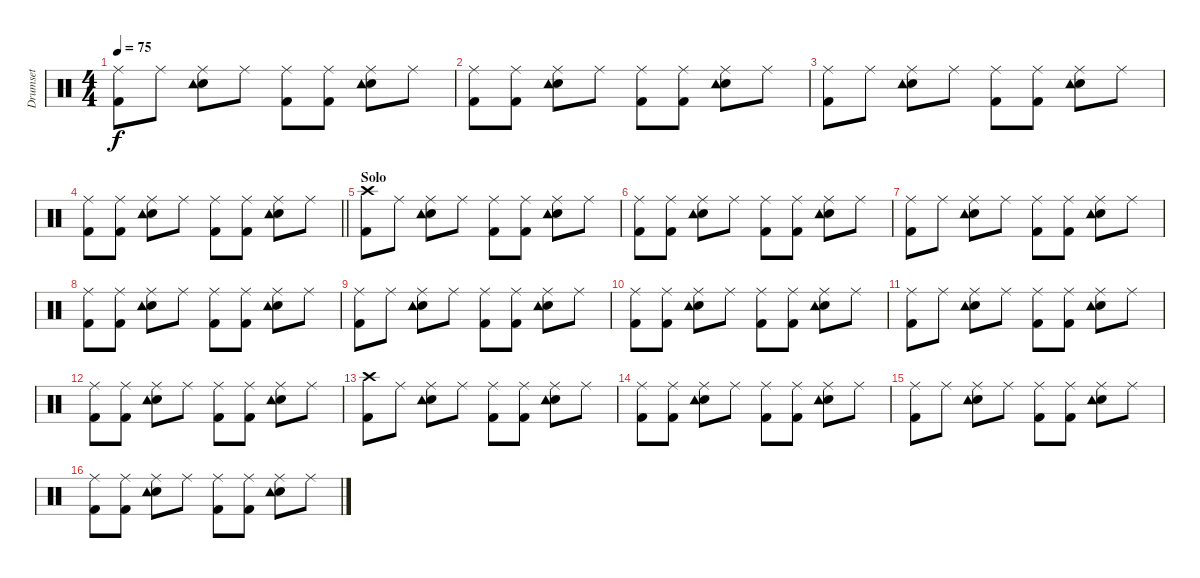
\track ("Drumset" "Drumset") {instrument percussion}
\staff {score}
\articulation defaults
\ts (4 4)
\tempo 75
\clef neutral
\ks c
("Ride (middle)" "Kick (hit) 2").8{dy f} "Ride (middle)".8 ("Ride (middle)" "Electric Snare (hit)" "Tambourine (hit)").8 "Ride (middle)".8 ("Ride (middle)" "Kick (hit) 2").8 ("Ride (middle)" "Kick (hit) 2").8 ("Ride (middle)" "Electric Snare (hit)" "Tambourine (hit)").8 "Ride (middle)".8 |
("Ride (middle)" "Kick (hit) 2").8 ("Ride (middle)" "Kick (hit) 2").8 ("Ride (middle)" "Electric Snare (hit)" "Tambourine (hit)").8 "Ride (middle)".8 ("Ride (middle)" "Kick (hit) 2").8 ("Ride (middle)" "Kick (hit) 2").8 ("Ride (middle)" "Electric Snare (hit)" "Tambourine (hit)").8 "Ride (middle)".8 |
("Ride (middle)" "Kick (hit) 2").8 "Ride (middle)".8 ("Ride (middle)" "Electric Snare (hit)" "Tambourine (hit)").8 "Ride (middle)".8 ("Ride (middle)" "Kick (hit) 2").8 ("Ride (middle)" "Kick (hit) 2").8 ("Ride (middle)" "Electric Snare (hit)" "Tambourine (hit)").8 "Ride (middle)".8 |
\barLineRight lightlight
("Ride (middle)" "Kick (hit) 2").8 ("Ride (middle)" "Kick (hit) 2").8 ("Ride (middle)" "Electric Snare (hit)" "Tambourine (hit)").8 "Ride (middle)".8 ("Ride (middle)" "Kick (hit) 2").8 ("Ride (middle)" "Kick (hit) 2").8 ("Ride (middle)" "Electric Snare (hit)" "Tambourine (hit)").8 "Ride (middle)".8 |
\section ("" "Solo")
("Crash high (hit)" "Kick (hit) 2").8 "Ride (middle)".8 ("Ride (middle)" "Electric Snare (hit)" "Tambourine (hit)").8 "Ride (middle)".8 ("Ride (middle)" "Kick (hit) 2").8 ("Ride (middle)" "Kick (hit) 2").8 ("Ride (middle)" "Electric Snare (hit)" "Tambourine (hit)").8 "Ride (middle)".8 |
("Ride (middle)" "Kick (hit) 2").8 ("Ride (middle)" "Kick (hit) 2").8 ("Ride (middle)" "Electric Snare (hit)" "Tambourine (hit)").8 "Ride (middle)".8 ("Ride (middle)" "Kick (hit) 2").8 ("Ride (middle)" "Kick (hit) 2").8 ("Ride (middle)" "Electric Snare (hit)" "Tambourine (hit)").8 "Ride (middle)".8 |
("Ride (middle)" "Kick (hit) 2").8 "Ride (middle)".8 ("Ride (middle)" "Electric Snare (hit)" "Tambourine (hit)").8 "Ride (middle)".8 ("Ride (middle)" "Kick (hit) 2").8 ("Ride (middle)" "Kick (hit) 2").8 ("Ride (middle)" "Electric Snare (hit)" "Tambourine (hit)").8 "Ride (middle)".8 |
("Ride (middle)" "Kick (hit) 2").8 ("Ride (middle)" "Kick (hit) 2").8 ("Ride (middle)" "Electric Snare (hit)" "Tambourine (hit)").8 "Ride (middle)".8 ("Ride (middle)" "Kick (hit) 2").8 ("Ride (middle)" "Kick (hit) 2").8 ("Ride (middle)" "Electric Snare (hit)" "Tambourine (hit)").8 "Ride (middle)".8 |
("Ride (middle)" "Kick (hit) 2").8 "Ride (middle)".8 ("Ride (middle)" "Electric Snare (hit)" "Tambourine (hit)").8 "Ride (middle)".8 ("Ride (middle)" "Kick (hit) 2").8 ("Ride (middle)" "Kick (hit) 2").8 ("Ride (middle)" "Electric Snare (hit)" "Tambourine (hit)").8 "Ride (middle)".8 |
("Ride (middle)" "Kick (hit) 2").8 ("Ride (middle)" "Kick (hit) 2").8 ("Ride (middle)" "Electric Snare (hit)" "Tambourine (hit)").8 "Ride (middle)".8 ("Ride (middle)" "Kick (hit) 2").8 ("Ride (middle)" "Kick (hit) 2").8 ("Ride (middle)" "Electric Snare (hit)" "Tambourine (hit)").8 "Ride (middle)".8 |
("Ride (middle)" "Kick (hit) 2").8 "Ride (middle)".8 ("Ride (middle)" "Electric Snare (hit)" "Tambourine (hit)").8 "Ride (middle)".8 ("Ride (middle)" "Kick (hit) 2").8 ("Ride (middle)" "Kick (hit) 2").8 ("Ride (middle)" "Electric Snare (hit)" "Tambourine (hit)").8 "Ride (middle)".8 |
("Ride (middle)" "Kick (hit) 2").8 ("Ride (middle)" "Kick (hit) 2").8 ("Ride (middle)" "Electric Snare (hit)" "Tambourine (hit)").8 "Ride (middle)".8 ("Ride (middle)" "Kick (hit) 2").8 ("Ride (middle)" "Kick (hit) 2").8 ("Ride (middle)" "Electric Snare (hit)" "Tambourine (hit)").8 "Ride (middle)".8 |
("Crash high (hit)" "Kick (hit) 2").8 "Ride (middle)".8 ("Ride (middle)" "Electric Snare (hit)" "Tambourine (hit)").8 "Ride (middle)".8 ("Ride (middle)" "Kick (hit) 2").8 ("Ride (middle)" "Kick (hit) 2").8 ("Ride (middle)" "Electric Snare (hit)" "Tambourine (hit)").8 "Ride (middle)".8 |
("Ride (middle)" "Kick (hit) 2").8 ("Ride (middle)" "Kick (hit) 2").8 ("Ride (middle)" "Electric Snare (hit)" "Tambourine (hit)").8 "Ride (middle)".8 ("Ride (middle)" "Kick (hit) 2").8 ("Ride (middle)" "Kick (hit) 2").8 ("Ride (middle)" "Electric Snare (hit)" "Tambourine (hit)").8 "Ride (middle)".8 |
("Ride (middle)" "Kick (hit) 2").8 "Ride (middle)".8 ("Ride (middle)" "Electric Snare (hit)" "Tambourine (hit)").8 "Ride (middle)".8 ("Ride (middle)" "Kick (hit) 2").8 ("Ride (middle)" "Kick (hit) 2").8 ("Ride (middle)" "Electric Snare (hit)" "Tambourine (hit)").8 "Ride (middle)".8 |
("Ride (middle)" "Kick (hit) 2").8 ("Ride (middle)" "Kick (hit) 2").8 ("Ride (middle)" "Electric Snare (hit)" "Tambourine (hit)").8 "Ride (middle)".8 ("Ride (middle)" "Kick (hit) 2").8 ("Ride (middle)" "Kick (hit) 2").8 ("Ride (middle)" "Electric Snare (hit)" "Tambourine (hit)").8 "Ride (middle)".8
